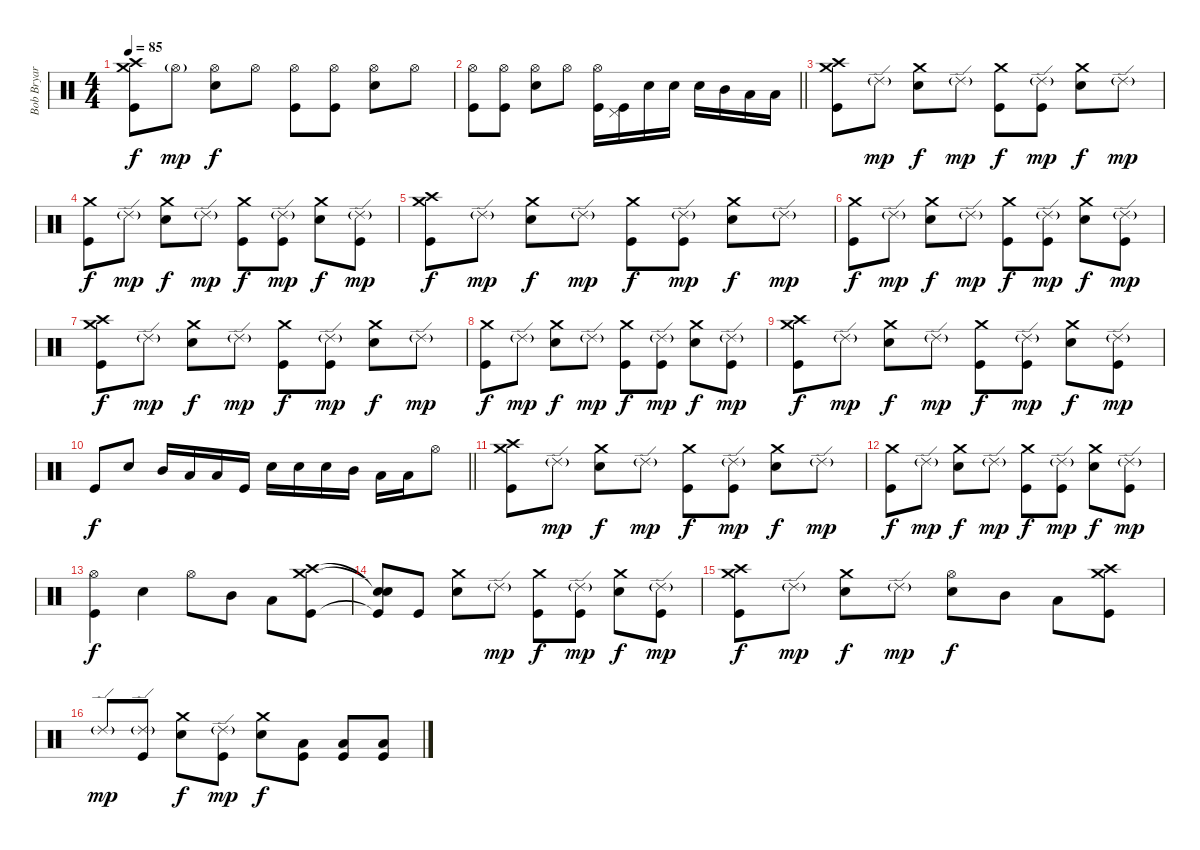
\track ("Bob Bryar [Drums]" "Bob Bryar ") {instrument percussion}
\staff {score}
\articulation defaults
\ts (4 4)
\tempo 85
\clef neutral
\ks c
("Crash high (hit)" "Crash medium (hit)" "Kick (hit)").8{dy f} "Hi-Hat (open)"{g}.8{dy mp} ("Hi-Hat (open)" "Electric Snare (hit)").8{dy f} "Hi-Hat (open)".8 ("Hi-Hat (open)" "Kick (hit)").8 ("Hi-Hat (open)" "Kick (hit)").8 ("Hi-Hat (open)" "Electric Snare (hit)").8 "Hi-Hat (open)".8 |
\barLineRight lightlight
("Hi-Hat (open)" "Kick (hit)").8 ("Hi-Hat (open)" "Kick (hit)").8 ("Hi-Hat (open)" "Electric Snare (hit)").8 "Hi-Hat (open)".8 ("Hi-Hat (open)" "Kick (hit)").16 ("Pedal Hi-Hat (hit)" "Kick (hit)").16 "Electric Snare (hit)".16 "Electric Snare (hit)".16 "Electric Snare (hit)".16 "Mid Tom (hit)".16 "Low Floor Tom (hit)".16 "Low Floor Tom (hit)".16 |
("Crash high (hit)" "Crash medium (hit)" "Kick (hit)").8 "Ride (edge) 2"{g}.8{dy mp} ("Crash medium (hit)" "Electric Snare (hit)").8{dy f} "Ride (edge) 2"{g}.8{dy mp} ("Crash medium (hit)" "Kick (hit)").8{dy f} ("Ride (edge) 2"{g} "Kick (hit)").8{dy mp} ("Crash medium (hit)" "Electric Snare (hit)").8{dy f} "Ride (edge) 2"{g}.8{dy mp} |
("Crash medium (hit)" "Kick (hit)").8{dy f} "Ride (edge) 2"{g}.8{dy mp} ("Crash medium (hit)" "Electric Snare (hit)").8{dy f} "Ride (edge) 2"{g}.8{dy mp} ("Crash medium (hit)" "Kick (hit)").8{dy f} ("Ride (edge) 2"{g} "Kick (hit)").8{dy mp} ("Crash medium (hit)" "Electric Snare (hit)").8{dy f} ("Ride (edge) 2"{g} "Kick (hit)").8{dy mp} |
("Crash high (hit)" "Crash medium (hit)" "Kick (hit)").8{dy f} "Ride (edge) 2"{g}.8{dy mp} ("Crash medium (hit)" "Electric Snare (hit)").8{dy f} "Ride (edge) 2"{g}.8{dy mp} ("Crash medium (hit)" "Kick (hit)").8{dy f} ("Ride (edge) 2"{g} "Kick (hit)").8{dy mp} ("Crash medium (hit)" "Electric Snare (hit)").8{dy f} "Ride (edge) 2"{g}.8{dy mp} |
("Crash medium (hit)" "Kick (hit)").8{dy f} "Ride (edge) 2"{g}.8{dy mp} ("Crash medium (hit)" "Electric Snare (hit)").8{dy f} "Ride (edge) 2"{g}.8{dy mp} ("Crash medium (hit)" "Kick (hit)").8{dy f} ("Ride (edge) 2"{g} "Kick (hit)").8{dy mp} ("Crash medium (hit)" "Electric Snare (hit)").8{dy f} ("Ride (edge) 2"{g} "Kick (hit)").8{dy mp} |
("Crash high (hit)" "Crash medium (hit)" "Kick (hit)").8{dy f} "Ride (edge) 2"{g}.8{dy mp} ("Crash medium (hit)" "Electric Snare (hit)").8{dy f} "Ride (edge) 2"{g}.8{dy mp} ("Crash medium (hit)" "Kick (hit)").8{dy f} ("Ride (edge) 2"{g} "Kick (hit)").8{dy mp} ("Crash medium (hit)" "Electric Snare (hit)").8{dy f} "Ride (edge) 2"{g}.8{dy mp} |
("Crash medium (hit)" "Kick (hit)").8{dy f} "Ride (edge) 2"{g}.8{dy mp} ("Crash medium (hit)" "Electric Snare (hit)").8{dy f} "Ride (edge) 2"{g}.8{dy mp} ("Crash medium (hit)" "Kick (hit)").8{dy f} ("Ride (edge) 2"{g} "Kick (hit)").8{dy mp} ("Crash medium (hit)" "Electric Snare (hit)").8{dy f} ("Ride (edge) 2"{g} "Kick (hit)").8{dy mp} |
("Crash high (hit)" "Crash medium (hit)" "Kick (hit)").8{dy f} "Ride (edge) 2"{g}.8{dy mp} ("Crash medium (hit)" "Electric Snare (hit)").8{dy f} "Ride (edge) 2"{g}.8{dy mp} ("Crash medium (hit)" "Kick (hit)").8{dy f} ("Ride (edge) 2"{g} "Kick (hit)").8{dy mp} ("Crash medium (hit)" "Electric Snare (hit)").8{dy f} ("Ride (edge) 2"{g} "Kick (hit)").8{dy mp} |
\barLineRight lightlight "Kick (hit)".8{dy f} "Electric Snare (hit)".8 "Mid Tom (hit)".16 "Low Floor Tom (hit)".16 "Low Floor Tom (hit)".16 "Kick (hit)".16 "Electric Snare (hit)".16 "Electric Snare (hit)".16 "Electric Snare (hit)".16 "Mid Tom (hit)".16 "Low Floor Tom (hit)".16 "Low Floor Tom (hit)".16 "Hi-Hat (open)".8
|
("Crash high (hit)" "Crash medium (hit)" "Kick (hit)").8 "Ride (edge) 2"{g}.8{dy mp} ("Crash medium (hit)" "Electric Snare (hit)").8{dy f} "Ride (edge) 2"{g}.8{dy mp} ("Crash medium (hit)" "Kick (hit)").8{dy f} ("Ride (edge) 2"{g} "Kick (hit)").8{dy mp} ("Crash medium (hit)" "Electric Snare (hit)").8{dy f} "Ride (edge) 2"{g}.8{dy mp} |
("Crash medium (hit)" "Kick (hit)").8{dy f} "Ride (edge) 2"{g}.8{dy mp} ("Crash medium (hit)" "Electric Snare (hit)").8{dy f} "Ride (edge) 2"{g}.8{dy mp} ("Crash medium (hit)" "Kick (hit)").8{dy f} ("Ride (edge) 2"{g} "Kick (hit)").8{dy mp} ("Crash medium (hit)" "Electric Snare (hit)").8{dy f} ("Ride (edge) 2"{g} "Kick (hit)").8{dy mp} |
("Hi-Hat (open)" "Kick (hit)").4{dy f} "Electric Snare (hit)".4 "Hi-Hat (open)".8 "Mid Tom (hit)".8 "Low Floor Tom (hit)".8 ("Crash high (hit)" "Crash medium (hit)" "Kick (hit)").8 |
("Snare (hit)"{t} "Snare (hit)"{t} "Kick (hit)"{t}).8 "Kick (hit)".8 ("Crash medium (hit)" "Electric Snare (hit)").8 "Ride (edge) 2"{g}.8{dy mp} ("Crash medium (hit)" "Kick (hit)").8{dy f} ("Ride (edge) 2"{g} "Kick (hit)").8{dy mp} ("Crash medium (hit)" "Electric Snare (hit)").8{dy f} ("Ride (edge) 2"{g} "Kick (hit)").8{dy mp} |
("Crash high (hit)" "Crash medium (hit)" "Kick (hit)").8{dy f} "Ride (edge) 2"{g}.8{dy mp} ("Crash medium (hit)" "Electric Snare (hit)").8{dy f} "Ride (edge) 2"{g}.8{dy mp} ("Hi-Hat (open)" "Electric Snare (hit)").8{dy f} "Mid Tom (hit)".8 "Low Floor Tom (hit)".8 ("Crash high (hit)" "Crash medium (hit)" "Kick (hit)").8 |
"Ride (edge) 2"{g}.8{dy mp} ("Ride (edge) 2"{g} "Kick (hit)").8 ("Crash medium (hit)" "Electric Snare (hit)").8{dy f} ("Ride (edge) 2"{g} "Kick (hit)").8{dy mp} ("Crash medium (hit)" "Electric Snare (hit)").8{dy f} ("Low Floor Tom (hit)" "Kick (hit)").8 ("Low Floor Tom (hit)" "Kick (hit)").8 ("Low Floor Tom (hit)" "Kick (hit)").8
